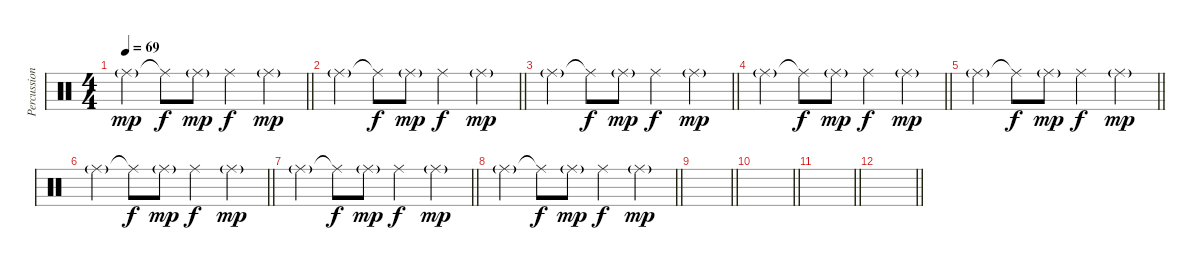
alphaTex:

\track ("Percussions" "Percussion") {instrument percussion}
\staff {score}
\articulation defaults
\ts (4 4)
\tempo 69
\clef neutral
\barLineRight lightlight
\ks c "Ride (middle)"{g}.4{dy mp} "Ride (middle)"{t}.8{dy f} "Ride (middle)"{g}.8{dy mp} "Ride (middle)".4{dy f} "Ride (middle)"{g}.4{dy mp}
|
\barLineRight lightlight "Ride (middle)"{g}.4 "Ride (middle)"{t}.8{dy f} "Ride (middle)"{g}.8{dy mp} "Ride (middle)".4{dy f} "Ride (middle)"{g}.4{dy mp}
|
\barLineRight lightlight "Ride (middle)"{g}.4 "Ride (middle)"{t}.8{dy f} "Ride (middle)"{g}.8{dy mp} "Ride (middle)".4{dy f} "Ride (middle)"{g}.4{dy mp}
|
\barLineRight lightlight "Ride (middle)"{g}.4 "Ride (middle)"{t}.8{dy f} "Ride (middle)"{g}.8{dy mp} "Ride (middle)".4{dy f} "Ride (middle)"{g}.4{dy mp}
|
\barLineRight lightlight "Ride (middle)"{g}.4{volume 0} "Ride (middle)"{t}.8{dy f} "Ride (middle)"{g}.8{dy mp} "Ride (middle)".4{dy f} "Ride (middle)"{g}.4{dy mp}
|
\barLineRight lightlight "Ride (middle)"{g}.4 "Ride (middle)"{t}.8{dy f} "Ride (middle)"{g}.8{dy mp} "Ride (middle)".4{dy f} "Ride (middle)"{g}.4{dy mp}
|
\barLineRight lightlight "Ride (middle)"{g}.4 "Ride (middle)"{t}.8{dy f} "Ride (middle)"{g}.8{dy mp} "Ride (middle)".4{dy f} "Ride (middle)"{g}.4{dy mp}
|
\barLineRight lightlight "Ride (middle)"{g}.4 "Ride (middle)"{t}.8{dy f} "Ride (middle)"{g}.8{dy mp} "Ride (middle)".4{dy f} "Ride (middle)"{g}.4{dy mp}
|
\barLineRight lightlight
|
\barLineRight lightlight
|
\barLineRight lightlight
|
\barLineRight lightlight
